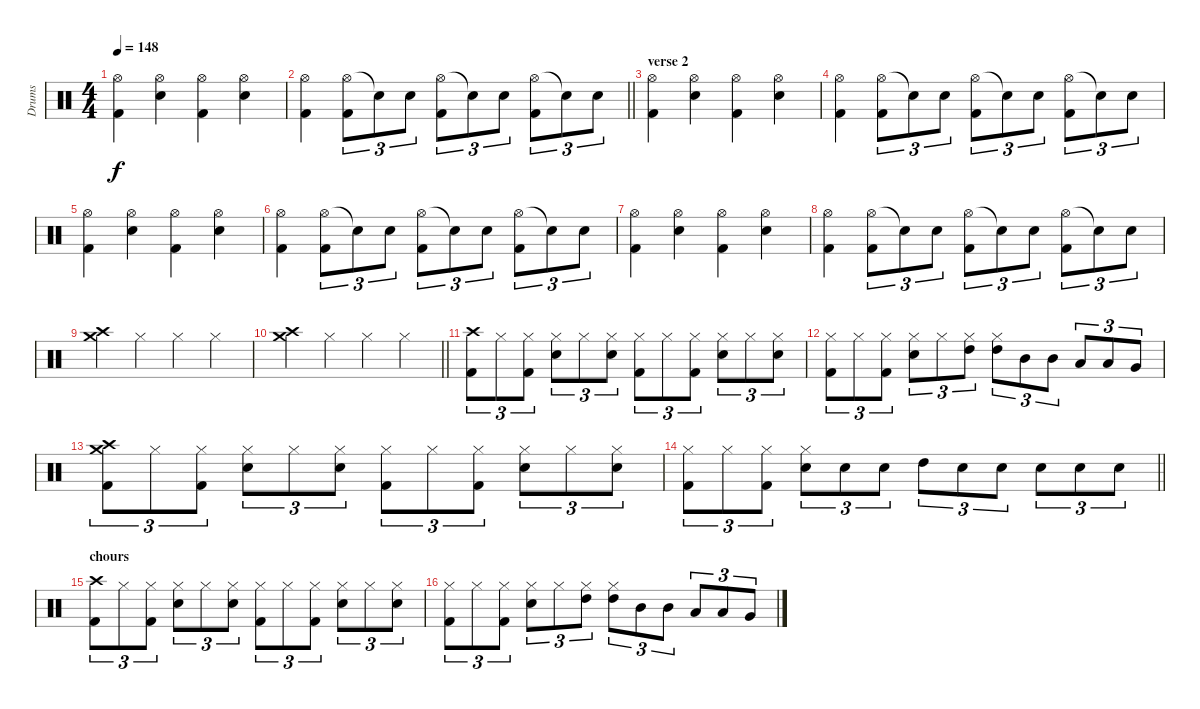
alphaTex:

\track ("Drums" "Drums") {instrument percussion}
\staff {score}
\articulation defaults
\ts (4 4)
\tempo 148
\clef neutral
\ks c
("Hi-Hat (open)" "Kick (hit) 2").4{dy f} ("Hi-Hat (open)" "Snare (hit) 2").4 ("Hi-Hat (open)" "Kick (hit) 2").4 ("Hi-Hat (open)" "Snare (hit) 2").4 |
\barLineRight lightlight
("Hi-Hat (open)" "Kick (hit) 2").4 ("Hi-Hat (open)" "Kick (hit) 2").8{tu (3 2)} "Snare (hit)"{t}.8{tu (3 2)} "Snare (hit) 2".8{tu (3 2)} ("Hi-Hat (open)" "Kick (hit) 2").8{tu (3 2)} "Snare (hit)"{t}.8{tu (3 2)} "Snare (hit) 2".8{tu (3 2)} ("Hi-Hat (open)" "Kick (hit) 2").8{tu (3 2)} "Snare (hit) 2"{t}.8{tu (3 2)} "Snare (hit) 2".8{tu (3 2)} |
\section ("" "verse 2")
("Hi-Hat (open)" "Kick (hit) 2").4 ("Hi-Hat (open)" "Snare (hit) 2").4 ("Hi-Hat (open)" "Kick (hit) 2").4 ("Hi-Hat (open)" "Snare (hit) 2").4 |
("Hi-Hat (open)" "Kick (hit) 2").4 ("Hi-Hat (open)" "Kick (hit) 2").8{tu (3 2)} "Snare (hit)"{t}.8{tu (3 2)} "Snare (hit) 2".8{tu (3 2)} ("Hi-Hat (open)" "Kick (hit) 2").8{tu (3 2)} "Snare (hit)"{t}.8{tu (3 2)} "Snare (hit) 2".8{tu (3 2)} ("Hi-Hat (open)" "Kick (hit) 2").8{tu (3 2)} "Snare (hit) 2"{t}.8{tu (3 2)} "Snare (hit) 2".8{tu (3 2)} |
("Hi-Hat (open)" "Kick (hit) 2").4 ("Hi-Hat (open)" "Snare (hit) 2").4 ("Hi-Hat (open)" "Kick (hit) 2").4 ("Hi-Hat (open)" "Snare (hit) 2").4 |
("Hi-Hat (open)" "Kick (hit) 2").4 ("Hi-Hat (open)" "Kick (hit) 2").8{tu (3 2)} "Snare (hit)"{t}.8{tu (3 2)} "Snare (hit) 2".8{tu (3 2)} ("Hi-Hat (open)" "Kick (hit) 2").8{tu (3 2)} "Snare (hit)"{t}.8{tu (3 2)} "Snare (hit) 2".8{tu (3 2)} ("Hi-Hat (open)" "Kick (hit) 2").8{tu (3 2)} "Snare (hit) 2"{t}.8{tu (3 2)} "Snare (hit) 2".8{tu (3 2)} |
("Hi-Hat (open)" "Kick (hit) 2").4 ("Hi-Hat (open)" "Snare (hit) 2").4 ("Hi-Hat (open)" "Kick (hit) 2").4 ("Hi-Hat (open)" "Snare (hit) 2").4 |
("Hi-Hat (open)" "Kick (hit) 2").4 ("Hi-Hat (open)" "Kick (hit) 2").8{tu (3 2)} "Snare (hit)"{t}.8{tu (3 2)} "Snare (hit) 2".8{tu (3 2)} ("Hi-Hat (open)" "Kick (hit) 2").8{tu (3 2)} "Snare (hit)"{t}.8{tu (3 2)} "Snare (hit) 2".8{tu (3 2)} ("Hi-Hat (open)" "Kick (hit) 2").8{tu (3 2)} "Snare (hit) 2"{t}.8{tu (3 2)} "Snare (hit) 2".8{tu (3 2)} |
("Crash high (hit)" "Crash medium (hit)").4 "Hi-Hat (closed)".4 "Hi-Hat (closed)".4 "Hi-Hat (closed)".4 |
\barLineRight lightlight
("Crash high (hit)" "Crash medium (hit)").4 "Hi-Hat (closed)".4 "Hi-Hat (closed)".4 "Hi-Hat (closed)".4 |
("Crash high (hit)" "Kick (hit) 2").8{tu (3 2)} "Hi-Hat (closed)".8{tu (3 2)} ("Hi-Hat (closed)" "Kick (hit) 2").8{tu (3 2)} ("Hi-Hat (closed)" "Snare (hit) 2").8{tu (3 2)} "Hi-Hat (closed)".8{tu (3 2)} ("Hi-Hat (closed)" "Snare (hit) 2").8{tu (3 2)} ("Hi-Hat (closed)" "Kick (hit) 2").8{tu (3 2)} "Hi-Hat (closed)".8{tu (3 2)} ("Hi-Hat (closed)" "Kick (hit) 2").8{tu (3 2)} ("Hi-Hat (closed)" "Snare (hit) 2").8{tu (3 2)} "Hi-Hat (closed)".8{tu (3 2)} ("Hi-Hat (closed)" "Snare (hit) 2").8{tu (3 2)} |
("Hi-Hat (closed)" "Kick (hit) 2").8{tu (3 2)} "Hi-Hat (closed)".8{tu (3 2)} ("Hi-Hat (closed)" "Kick (hit) 2").8{tu (3 2)} ("Hi-Hat (closed)" "Snare (hit) 2").8{tu (3 2)} "Hi-Hat (closed)".8{tu (3 2)} ("Hi-Hat (closed)" "High Tom (hit)").8{tu (3 2)} ("Hi-Hat (closed)" "High Tom (hit)").8{tu (3 2)} "Mid Tom (hit)".8{tu (3 2)} "Mid Tom (hit)".8{tu (3 2)} "Low Tom (hit)".8{tu (3 2)} "Low Tom (hit)".8{tu (3 2)} "Very Low Tom (hit)".8{tu (3 2)} |
("Crash high (hit)" "Crash medium (hit)" "Kick (hit) 2").8{tu (3 2)} "Hi-Hat (closed)".8{tu (3 2)} ("Hi-Hat (closed)" "Kick (hit) 2").8{tu (3 2)} ("Hi-Hat (closed)" "Snare (hit) 2").8{tu (3 2)} "Hi-Hat (closed)".8{tu (3 2)} ("Hi-Hat (closed)" "Snare (hit) 2").8{tu (3 2)} ("Hi-Hat (closed)" "Kick (hit) 2").8{tu (3 2)} "Hi-Hat (closed)".8{tu (3 2)} ("Hi-Hat (closed)" "Kick (hit) 2").8{tu (3 2)} ("Hi-Hat (closed)" "Snare (hit) 2").8{tu (3 2)} "Hi-Hat (closed)".8{tu (3 2)} ("Hi-Hat (closed)" "Snare (hit) 2").8{tu (3 2)} |
\barLineRight lightlight
("Hi-Hat (closed)" "Kick (hit) 2").8{tu (3 2)} "Hi-Hat (closed)".8{tu (3 2)} ("Hi-Hat (closed)" "Kick (hit) 2").8{tu (3 2)} ("Hi-Hat (closed)" "Snare (hit) 2").8{tu (3 2)} "Snare (hit) 2".8{tu (3 2)} "Snare (hit) 2".8{tu (3 2)} "High Tom (hit)".8{tu (3 2)} "Snare (hit) 2".8{tu (3 2)} "Snare (hit) 2".8{tu (3 2)} "Snare (hit) 2".8{tu (3 2)} "Snare (hit) 2".8{tu (3 2)} "Snare (hit) 2".8{tu (3 2)} |
\section ("" "chours")
("Crash high (hit)" "Kick (hit) 2").8{tu (3 2)} "Hi-Hat (closed)".8{tu (3 2)} ("Hi-Hat (closed)" "Kick (hit) 2").8{tu (3 2)} ("Hi-Hat (closed)" "Snare (hit) 2").8{tu (3 2)} "Hi-Hat (closed)".8{tu (3 2)} ("Hi-Hat (closed)" "Snare (hit) 2").8{tu (3 2)} ("Hi-Hat (closed)" "Kick (hit) 2").8{tu (3 2)} "Hi-Hat (closed)".8{tu (3 2)} ("Hi-Hat (closed)" "Kick (hit) 2").8{tu (3 2)} ("Hi-Hat (closed)" "Snare (hit) 2").8{tu (3 2)} "Hi-Hat (closed)".8{tu (3 2)} ("Hi-Hat (closed)" "Snare (hit) 2").8{tu (3 2)} |
("Hi-Hat (closed)" "Kick (hit) 2").8{tu (3 2)} "Hi-Hat (closed)".8{tu (3 2)} ("Hi-Hat (closed)" "Kick (hit) 2").8{tu (3 2)} ("Hi-Hat (closed)" "Snare (hit) 2").8{tu (3 2)} "Hi-Hat (closed)".8{tu (3 2)} ("Hi-Hat (closed)" "High Tom (hit)").8{tu (3 2)} ("Hi-Hat (closed)" "High Tom (hit)").8{tu (3 2)} "Mid Tom (hit)".8{tu (3 2)} "Mid Tom (hit)".8{tu (3 2)} "Low Tom (hit)".8{tu (3 2)} "Low Tom (hit)".8{tu (3 2)} "Very Low Tom (hit)".8{tu (3 2)}
